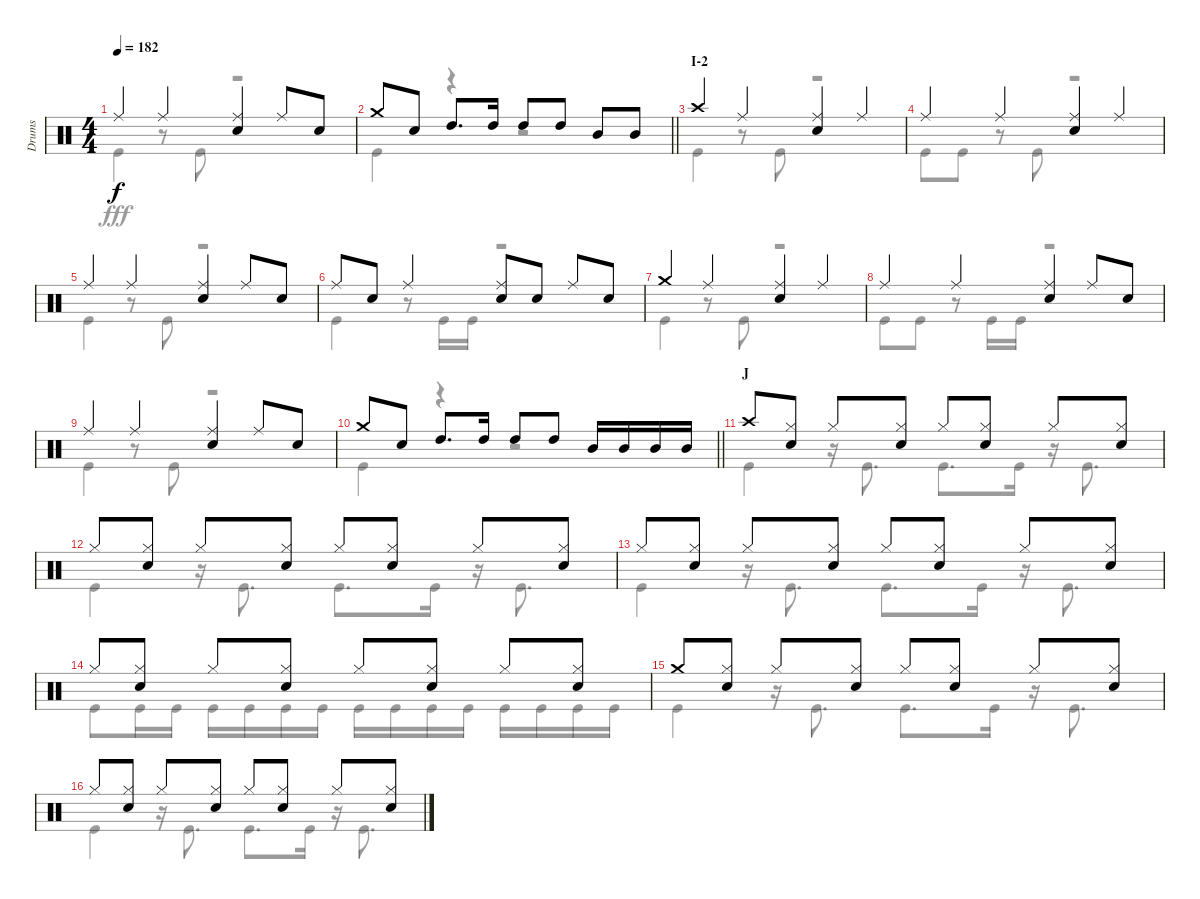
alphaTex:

\track ("Drums" "Drums") {instrument percussion}
\staff {score}
\articulation defaults
\voice
\ts (4 4)
\tempo 182
\clef neutral
\ks c "Ride (middle)".4{dy f} "Ride (middle)".4
("Ride (middle)" "Snare (hit) 2").4 "Ride (middle)".8 "Snare (hit) 2".8 |
\barLineRight lightlight "Crash medium (hit)".8 "Snare (hit) 2".8 "High Tom (hit)".8{d} "High Tom (hit)".16 "High Tom (hit)".8 "High Tom (hit)".8 "Mid Tom (hit)".8 "Mid Tom (hit)".8
|
\section ("" "I-2")
"Crash high (hit)".4 "Ride (middle)".4 ("Ride (middle)" "Snare (hit) 2").4 "Ride (middle)".4 |
"Ride (middle)".4 "Ride (middle)".4 ("Ride (middle)" "Snare (hit) 2").4 "Ride (middle)".4 |
"Ride (middle)".4 "Ride (middle)".4 ("Ride (middle)" "Snare (hit) 2").4 "Ride (middle)".8 "Snare (hit) 2".8 |
"Ride (middle)".8 "Snare (hit) 2".8 "Ride (middle)".4 ("Ride (middle)" "Snare (hit) 2").8 "Snare (hit) 2".8 "Ride (middle)".8 "Snare (hit) 2".8 |
"Crash medium (hit)".4 "Ride (middle)".4 ("Ride (middle)" "Snare (hit) 2").4 "Ride (middle)".4 |
"Ride (middle)".4 "Ride (middle)".4 ("Ride (middle)" "Snare (hit) 2").4 "Ride (middle)".8 "Snare (hit) 2".8 |
"Ride (middle)".4 "Ride (middle)".4 ("Ride (middle)" "Snare (hit) 2").4 "Ride (middle)".8 "Snare (hit) 2".8 |
\barLineRight lightlight "Crash medium (hit)".8 "Snare (hit) 2".8 "High Tom (hit)".8{d} "High Tom (hit)".16 "High Tom (hit)".8 "High Tom (hit)".8 "Mid Tom (hit)".16 "Mid Tom (hit)".16 "Mid Tom (hit)".16 "Mid Tom (hit)".16
|
\section ("" "J")
"Crash high (hit)".8 ("Hi-Hat (closed)" "Snare (hit) 2").8 "Hi-Hat (closed)".8 ("Hi-Hat (closed)" "Snare (hit) 2").8 "Hi-Hat (closed)".8 ("Hi-Hat (closed)" "Snare (hit) 2").8 "Hi-Hat (closed)".8 ("Hi-Hat (closed)" "Snare (hit) 2").8 |
"Hi-Hat (closed)".8 ("Hi-Hat (closed)" "Snare (hit) 2").8 "Hi-Hat (closed)".8 ("Hi-Hat (closed)" "Snare (hit) 2").8 "Hi-Hat (closed)".8 ("Hi-Hat (closed)" "Snare (hit) 2").8 "Hi-Hat (closed)".8 ("Hi-Hat (closed)" "Snare (hit) 2").8 |
"Hi-Hat (closed)".8 ("Hi-Hat (closed)" "Snare (hit) 2").8 "Hi-Hat (closed)".8 ("Hi-Hat (closed)" "Snare (hit) 2").8 "Hi-Hat (closed)".8 ("Hi-Hat (closed)" "Snare (hit) 2").8 "Hi-Hat (closed)".8 ("Hi-Hat (closed)" "Snare (hit) 2").8 |
"Hi-Hat (closed)".8 ("Hi-Hat (closed)" "Snare (hit) 2").8 "Hi-Hat (closed)".8 ("Hi-Hat (closed)" "Snare (hit) 2").8 "Hi-Hat (closed)".8 ("Hi-Hat (closed)" "Snare (hit) 2").8 "Hi-Hat (closed)".8 ("Hi-Hat (closed)" "Snare (hit) 2").8 |
"Crash medium (hit)".8 ("Hi-Hat (closed)" "Snare (hit) 2").8 "Hi-Hat (closed)".8 ("Hi-Hat (closed)" "Snare (hit) 2").8 "Hi-Hat (closed)".8 ("Hi-Hat (closed)" "Snare (hit) 2").8 "Hi-Hat (closed)".8 ("Hi-Hat (closed)" "Snare (hit) 2").8 |
"Hi-Hat (closed)".8 ("Hi-Hat (closed)" "Snare (hit) 2").8 "Hi-Hat (closed)".8 ("Hi-Hat (closed)" "Snare (hit) 2").8 "Hi-Hat (closed)".8 ("Hi-Hat (closed)" "Snare (hit) 2").8 "Hi-Hat (closed)".8 ("Hi-Hat (closed)" "Snare (hit) 2").8
\voice
\clef neutral
\ottava regular
\simile none
\ks c "Kick (hit)".4{dy fff}
r.8 "Kick (hit)".8 r.2 |
\barLineRight lightlight "Kick (hit)".4
r.4 r.2 |
"Kick (hit)".4 r.8 "Kick (hit)".8 r.2 |
"Kick (hit)".8 "Kick (hit)".8 r.8 "Kick (hit)".8 r.2 |
"Kick (hit)".4 r.8 "Kick (hit)".8 r.2 |
"Kick (hit)".4 r.8 "Kick (hit)".16 "Kick (hit)".16 r.2 |
"Kick (hit)".4 r.8 "Kick (hit)".8 r.2 |
"Kick (hit)".8 "Kick (hit)".8 r.8 "Kick (hit)".16 "Kick (hit)".16 r.2 |
"Kick (hit)".4 r.8 "Kick (hit)".8 r.2 |
\barLineRight lightlight "Kick (hit)".4
r.4 r.2 |
"Kick (hit)".4 r.16 "Kick (hit)".8{d} "Kick (hit)".8{d} "Kick (hit)".16 r.16 "Kick (hit)".8{d} |
"Kick (hit)".4 r.16 "Kick (hit)".8{d} "Kick (hit)".8{d} "Kick (hit)".16 r.16 "Kick (hit)".8{d} |
"Kick (hit)".4 r.16 "Kick (hit)".8{d} "Kick (hit)".8{d} "Kick (hit)".16 r.16 "Kick (hit)".8{d} |
"Kick (hit)".8 "Kick (hit)".16 "Kick (hit)".16 "Kick (hit)".16 "Kick (hit)".16 "Kick (hit)".16 "Kick (hit)".16 "Kick (hit)".16 "Kick (hit)".16 "Kick (hit)".16 "Kick (hit)".16 "Kick (hit)".16 "Kick (hit)".16 "Kick (hit)".16 "Kick (hit)".16 |
"Kick (hit)".4 r.16 "Kick (hit)".8{d} "Kick (hit)".8{d} "Kick (hit)".16 r.16 "Kick (hit)".8{d} |
"Kick (hit)".4 r.16 "Kick (hit)".8{d} "Kick (hit)".8{d} "Kick (hit)".16 r.16 "Kick (hit)".8{d}
